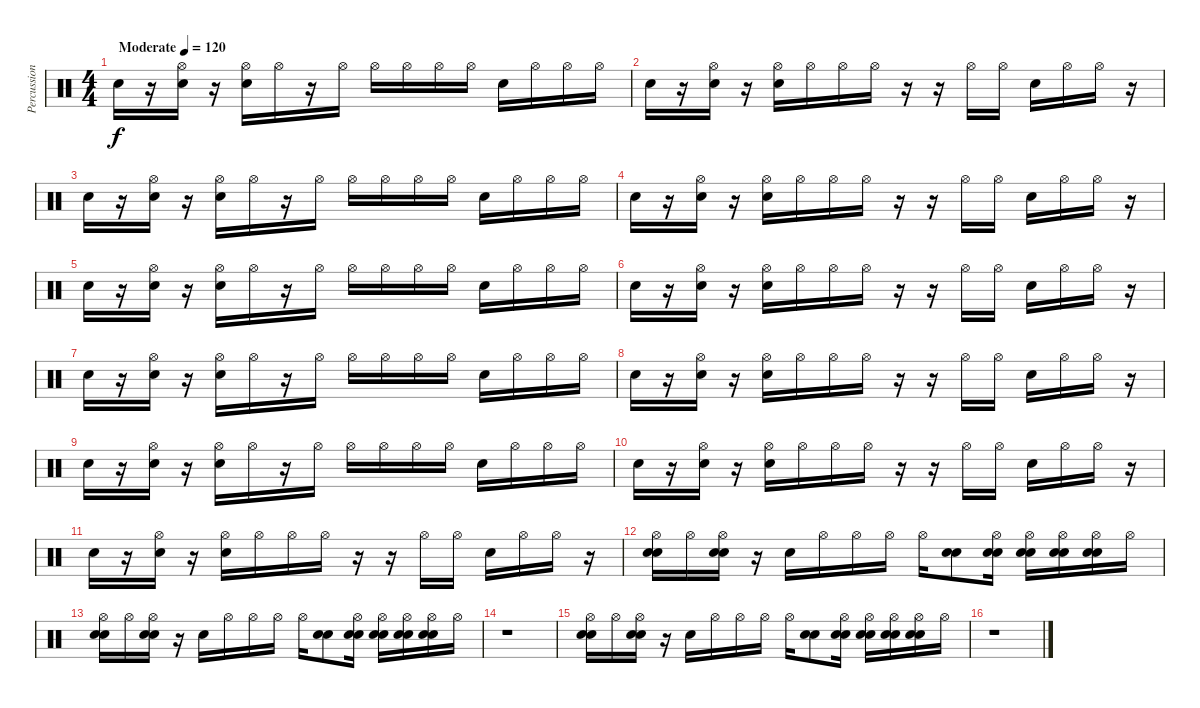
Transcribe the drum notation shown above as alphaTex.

\track ("Percussion" "Percussion") {instrument percussion}
\staff {score}
\articulation defaults
\ts (4 4)
\tempo (120 "Moderate")
\clef neutral
\ks c "Snare (hit) 2".16{dy f}
r.16 ("Hi-Hat (open)" "Snare (hit) 2").16 r.16 ("Hi-Hat (open)" "Electric Snare (hit)").16 "Hi-Hat (open)".16 r.16 "Hi-Hat (open)".16 "Hi-Hat (open)".16 "Hi-Hat (open)".16 "Hi-Hat (open)".16 "Hi-Hat (open)".16 "Electric Snare (hit)".16 "Hi-Hat (open)".16 "Hi-Hat (open)".16 "Hi-Hat (open)".16 |
"Snare (hit) 2".16 r.16 ("Hi-Hat (open)" "Snare (hit) 2").16 r.16 ("Hi-Hat (open)" "Electric Snare (hit)").16 "Hi-Hat (open)".16 "Hi-Hat (open)".16 "Hi-Hat (open)".16 r.16 r.16 "Hi-Hat (open)".16 "Hi-Hat (open)".16 "Electric Snare (hit)".16 "Hi-Hat (open)".16 "Hi-Hat (open)".16 r.16 |
"Snare (hit) 2".16 r.16 ("Hi-Hat (open)" "Snare (hit) 2").16 r.16 ("Hi-Hat (open)" "Electric Snare (hit)").16 "Hi-Hat (open)".16 r.16 "Hi-Hat (open)".16 "Hi-Hat (open)".16 "Hi-Hat (open)".16 "Hi-Hat (open)".16 "Hi-Hat (open)".16 "Electric Snare (hit)".16 "Hi-Hat (open)".16 "Hi-Hat (open)".16 "Hi-Hat (open)".16 |
"Snare (hit) 2".16 r.16 ("Hi-Hat (open)" "Snare (hit) 2").16 r.16 ("Hi-Hat (open)" "Electric Snare (hit)").16 "Hi-Hat (open)".16 "Hi-Hat (open)".16 "Hi-Hat (open)".16 r.16 r.16 "Hi-Hat (open)".16 "Hi-Hat (open)".16 "Electric Snare (hit)".16 "Hi-Hat (open)".16 "Hi-Hat (open)".16 r.16 |
"Snare (hit) 2".16 r.16 ("Hi-Hat (open)" "Snare (hit) 2").16 r.16 ("Hi-Hat (open)" "Electric Snare (hit)").16 "Hi-Hat (open)".16 r.16 "Hi-Hat (open)".16 "Hi-Hat (open)".16 "Hi-Hat (open)".16 "Hi-Hat (open)".16 "Hi-Hat (open)".16 "Electric Snare (hit)".16 "Hi-Hat (open)".16 "Hi-Hat (open)".16 "Hi-Hat (open)".16 |
"Snare (hit) 2".16 r.16 ("Hi-Hat (open)" "Snare (hit) 2").16 r.16 ("Hi-Hat (open)" "Electric Snare (hit)").16 "Hi-Hat (open)".16 "Hi-Hat (open)".16 "Hi-Hat (open)".16 r.16 r.16 "Hi-Hat (open)".16 "Hi-Hat (open)".16 "Electric Snare (hit)".16 "Hi-Hat (open)".16 "Hi-Hat (open)".16 r.16 |
"Snare (hit) 2".16 r.16 ("Hi-Hat (open)" "Snare (hit) 2").16 r.16 ("Hi-Hat (open)" "Electric Snare (hit)").16 "Hi-Hat (open)".16 r.16 "Hi-Hat (open)".16 "Hi-Hat (open)".16 "Hi-Hat (open)".16 "Hi-Hat (open)".16 "Hi-Hat (open)".16 "Electric Snare (hit)".16 "Hi-Hat (open)".16 "Hi-Hat (open)".16 "Hi-Hat (open)".16 |
"Snare (hit) 2".16 r.16 ("Hi-Hat (open)" "Snare (hit) 2").16 r.16 ("Hi-Hat (open)" "Electric Snare (hit)").16 "Hi-Hat (open)".16 "Hi-Hat (open)".16 "Hi-Hat (open)".16 r.16 r.16 "Hi-Hat (open)".16 "Hi-Hat (open)".16 "Electric Snare (hit)".16 "Hi-Hat (open)".16 "Hi-Hat (open)".16 r.16 |
"Snare (hit) 2".16 r.16 ("Hi-Hat (open)" "Snare (hit) 2").16 r.16 ("Hi-Hat (open)" "Electric Snare (hit)").16 "Hi-Hat (open)".16 r.16 "Hi-Hat (open)".16 "Hi-Hat (open)".16 "Hi-Hat (open)".16 "Hi-Hat (open)".16 "Hi-Hat (open)".16 "Electric Snare (hit)".16 "Hi-Hat (open)".16 "Hi-Hat (open)".16 "Hi-Hat (open)".16 |
"Snare (hit) 2".16 r.16 ("Hi-Hat (open)" "Snare (hit) 2").16 r.16 ("Hi-Hat (open)" "Electric Snare (hit)").16 "Hi-Hat (open)".16 "Hi-Hat (open)".16 "Hi-Hat (open)".16 r.16 r.16 "Hi-Hat (open)".16 "Hi-Hat (open)".16 "Electric Snare (hit)".16 "Hi-Hat (open)".16 "Hi-Hat (open)".16 r.16 |
"Snare (hit) 2".16 r.16 ("Hi-Hat (open)" "Snare (hit) 2").16 r.16 ("Hi-Hat (open)" "Electric Snare (hit)").16 "Hi-Hat (open)".16 "Hi-Hat (open)".16 "Hi-Hat (open)".16 r.16 r.16 "Hi-Hat (open)".16 "Hi-Hat (open)".16 "Electric Snare (hit)".16 "Hi-Hat (open)".16 "Hi-Hat (open)".16 r.16 |
("Hi-Hat (open)" "Snare (hit) 2" "Snare (hit) 2").16 "Hi-Hat (open)".16 ("Hi-Hat (open)" "Snare (hit) 2" "Snare (hit) 2").16 r.16 "Electric Snare (hit)".16 "Hi-Hat (open)".16 "Hi-Hat (open)".16 "Hi-Hat (open)".16 "Hi-Hat (open)".16 ("Snare (hit) 2" "Snare (hit) 2").8 ("Hi-Hat (open)" "Snare (hit) 2" "Snare (hit) 2").16 ("Hi-Hat (open)" "Electric Snare (hit)" "Electric Snare (hit)").16 ("Hi-Hat (open)" "Electric Snare (hit)" "Electric Snare (hit)").16 ("Hi-Hat (open)" "Snare (hit) 2" "Snare (hit) 2").16 "Hi-Hat (open)".16 |
("Hi-Hat (open)" "Snare (hit) 2" "Snare (hit) 2").16 "Hi-Hat (open)".16 ("Hi-Hat (open)" "Snare (hit) 2" "Snare (hit) 2").16 r.16 "Electric Snare (hit)".16 "Hi-Hat (open)".16 "Hi-Hat (open)".16 "Hi-Hat (open)".16 "Hi-Hat (open)".16 ("Snare (hit) 2" "Snare (hit) 2").8 ("Hi-Hat (open)" "Snare (hit) 2" "Snare (hit) 2").16 ("Hi-Hat (open)" "Electric Snare (hit)" "Electric Snare (hit)").16 ("Hi-Hat (open)" "Electric Snare (hit)" "Electric Snare (hit)").16 ("Hi-Hat (open)" "Snare (hit) 2" "Snare (hit) 2").16 "Hi-Hat (open)".16 |
r.1 |
("Hi-Hat (open)" "Snare (hit) 2" "Snare (hit) 2").16 "Hi-Hat (open)".16 ("Hi-Hat (open)" "Snare (hit) 2" "Snare (hit) 2").16 r.16 "Electric Snare (hit)".16 "Hi-Hat (open)".16 "Hi-Hat (open)".16 "Hi-Hat (open)".16 "Hi-Hat (open)".16 ("Snare (hit) 2" "Snare (hit) 2").8 ("Hi-Hat (open)" "Snare (hit) 2" "Snare (hit) 2").16 ("Hi-Hat (open)" "Electric Snare (hit)" "Electric Snare (hit)").16 ("Hi-Hat (open)" "Electric Snare (hit)" "Electric Snare (hit)").16 ("Hi-Hat (open)" "Snare (hit) 2" "Snare (hit) 2").16 "Hi-Hat (open)".16 |
r.1
